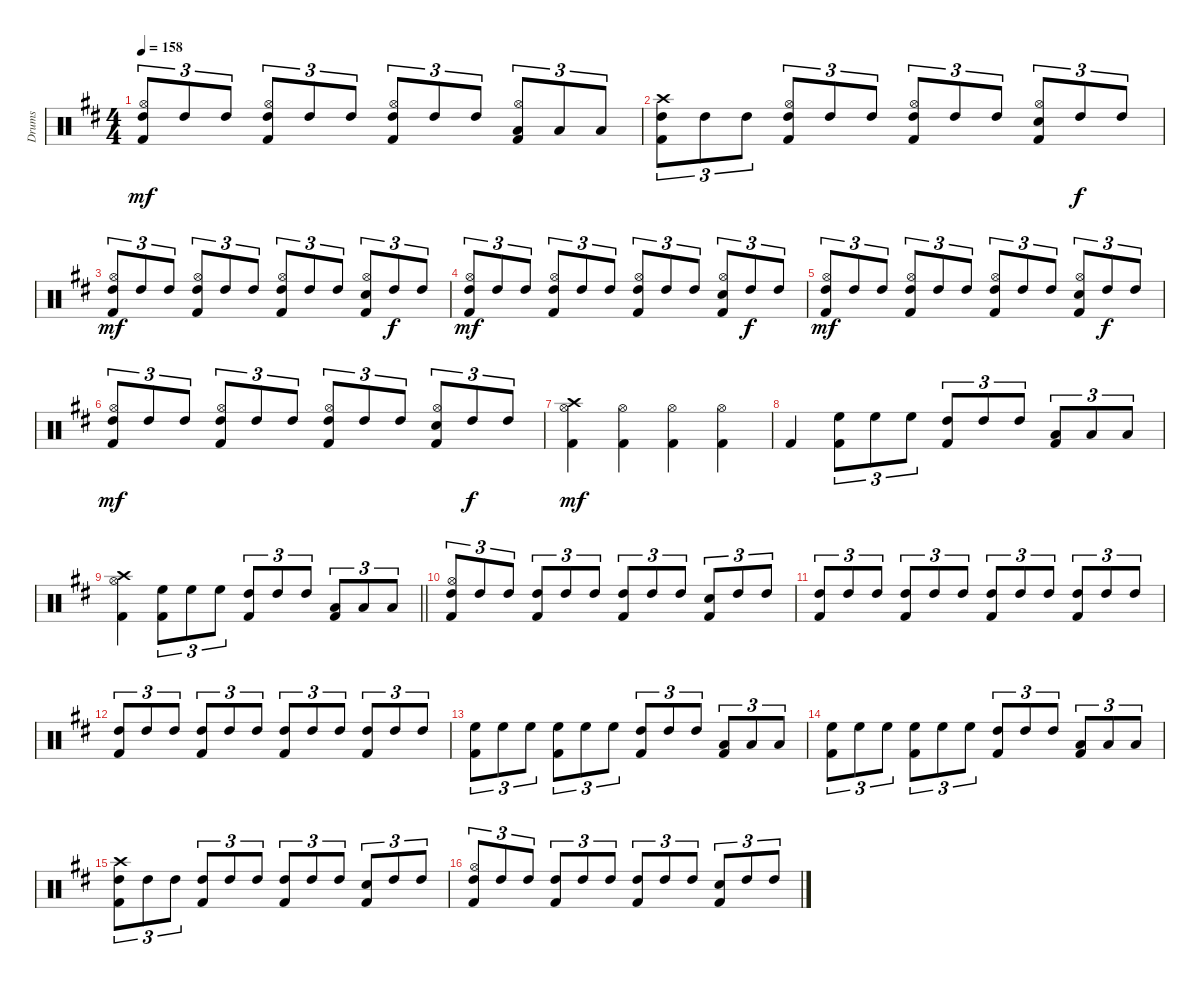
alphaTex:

\track ("Drums" "Drums") {instrument percussion}
\staff {score}
\articulation defaults
\ts (4 4)
\tempo 158
\clef neutral
\ks d
("Kick (hit) 2" "Hi-Hat (open)" "High Tom (hit)").8{tu (3 2) dy mf} "High Tom (hit)".8{tu (3 2)} "High Tom (hit)".8{tu (3 2)} ("Kick (hit) 2" "Hi-Hat (open)" "High Tom (hit)").8{tu (3 2)} "High Tom (hit)".8{tu (3 2)} "High Tom (hit)".8{tu (3 2)} ("Kick (hit) 2" "Hi-Hat (open)" "High Tom (hit)").8{tu (3 2)} "High Tom (hit)".8{tu (3 2)} "High Tom (hit)".8{tu (3 2)} ("Kick (hit) 2" "Hi-Hat (open)" "Low Tom (hit)").8{tu (3 2)} "Low Tom (hit)".8{tu (3 2)} "Low Tom (hit)".8{tu (3 2)} |
("Kick (hit) 2" "High Tom (hit)" "Crash high (hit)").8{tu (3 2)} "High Tom (hit)".8{tu (3 2)} "High Tom (hit)".8{tu (3 2)} ("Kick (hit) 2" "Hi-Hat (open)" "High Tom (hit)").8{tu (3 2)} "High Tom (hit)".8{tu (3 2)} "High Tom (hit)".8{tu (3 2)} ("Kick (hit) 2" "Hi-Hat (open)" "High Tom (hit)").8{tu (3 2)} "High Tom (hit)".8{tu (3 2)} "High Tom (hit)".8{tu (3 2)} ("Kick (hit) 2" "Snare (hit) 2" "Hi-Hat (open)").8{tu (3 2)} "High Tom (hit)".8{tu (3 2) dy f} "High Tom (hit)".8{tu (3 2)} |
("Kick (hit) 2" "Hi-Hat (open)" "High Tom (hit)").8{tu (3 2) dy mf} "High Tom (hit)".8{tu (3 2)} "High Tom (hit)".8{tu (3 2)} ("Kick (hit) 2" "Hi-Hat (open)" "High Tom (hit)").8{tu (3 2)} "High Tom (hit)".8{tu (3 2)} "High Tom (hit)".8{tu (3 2)} ("Kick (hit) 2" "Hi-Hat (open)" "High Tom (hit)").8{tu (3 2)} "High Tom (hit)".8{tu (3 2)} "High Tom (hit)".8{tu (3 2)} ("Kick (hit) 2" "Snare (hit) 2" "Hi-Hat (open)").8{tu (3 2)} "High Tom (hit)".8{tu (3 2) dy f} "High Tom (hit)".8{tu (3 2)} |
("Kick (hit) 2" "Hi-Hat (open)" "High Tom (hit)").8{tu (3 2) dy mf} "High Tom (hit)".8{tu (3 2)} "High Tom (hit)".8{tu (3 2)} ("Kick (hit) 2" "Hi-Hat (open)" "High Tom (hit)").8{tu (3 2)} "High Tom (hit)".8{tu (3 2)} "High Tom (hit)".8{tu (3 2)} ("Kick (hit) 2" "Hi-Hat (open)" "High Tom (hit)").8{tu (3 2)} "High Tom (hit)".8{tu (3 2)} "High Tom (hit)".8{tu (3 2)} ("Kick (hit) 2" "Snare (hit) 2" "Hi-Hat (open)").8{tu (3 2)} "High Tom (hit)".8{tu (3 2) dy f} "High Tom (hit)".8{tu (3 2)} |
("Kick (hit) 2" "Hi-Hat (open)" "High Tom (hit)").8{tu (3 2) dy mf} "High Tom (hit)".8{tu (3 2)} "High Tom (hit)".8{tu (3 2)} ("Kick (hit) 2" "Hi-Hat (open)" "High Tom (hit)").8{tu (3 2)} "High Tom (hit)".8{tu (3 2)} "High Tom (hit)".8{tu (3 2)} ("Kick (hit) 2" "Hi-Hat (open)" "High Tom (hit)").8{tu (3 2)} "High Tom (hit)".8{tu (3 2)} "High Tom (hit)".8{tu (3 2)} ("Kick (hit) 2" "Snare (hit) 2" "Hi-Hat (open)").8{tu (3 2)} "High Tom (hit)".8{tu (3 2) dy f} "High Tom (hit)".8{tu (3 2)} |
("Kick (hit) 2" "Hi-Hat (open)" "High Tom (hit)").8{tu (3 2) dy mf} "High Tom (hit)".8{tu (3 2)} "High Tom (hit)".8{tu (3 2)} ("Kick (hit) 2" "Hi-Hat (open)" "High Tom (hit)").8{tu (3 2)} "High Tom (hit)".8{tu (3 2)} "High Tom (hit)".8{tu (3 2)} ("Kick (hit) 2" "Hi-Hat (open)" "High Tom (hit)").8{tu (3 2)} "High Tom (hit)".8{tu (3 2)} "High Tom (hit)".8{tu (3 2)} ("Kick (hit) 2" "Snare (hit) 2" "Hi-Hat (open)").8{tu (3 2)} "High Tom (hit)".8{tu (3 2) dy f} "High Tom (hit)".8{tu (3 2)} |
("Kick (hit) 2" "Hi-Hat (open)" "Crash high (hit)").4{dy mf} ("Kick (hit) 2" "Hi-Hat (open)").4 ("Kick (hit) 2" "Hi-Hat (open)").4 ("Kick (hit) 2" "Hi-Hat (open)").4 |
"Kick (hit) 2".4 ("Kick (hit) 2" "High Floor Tom (hit)").8{tu (3 2)} "High Floor Tom (hit)".8{tu (3 2)} "High Floor Tom (hit)".8{tu (3 2)} ("Kick (hit) 2" "High Tom (hit)").8{tu (3 2)} "High Tom (hit)".8{tu (3 2)} "High Tom (hit)".8{tu (3 2)} ("Kick (hit) 2" "Low Tom (hit)").8{tu (3 2)} "Low Tom (hit)".8{tu (3 2)} "Low Tom (hit)".8{tu (3 2)} |
\barLineRight lightlight
("Kick (hit) 2" "Hi-Hat (open)" "Crash high (hit)").4 ("Kick (hit) 2" "High Floor Tom (hit)").8{tu (3 2)} "High Floor Tom (hit)".8{tu (3 2)} "High Floor Tom (hit)".8{tu (3 2)} ("Kick (hit) 2" "High Tom (hit)").8{tu (3 2)} "High Tom (hit)".8{tu (3 2)} "High Tom (hit)".8{tu (3 2)} ("Kick (hit) 2" "Low Tom (hit)").8{tu (3 2)} "Low Tom (hit)".8{tu (3 2)} "Low Tom (hit)".8{tu (3 2)} |
("Kick (hit) 2" "Hi-Hat (open)" "High Tom (hit)").8{tu (3 2)} "High Tom (hit)".8{tu (3 2)} "High Tom (hit)".8{tu (3 2)} ("Kick (hit) 2" "High Tom (hit)").8{tu (3 2)} "High Tom (hit)".8{tu (3 2)} "High Tom (hit)".8{tu (3 2)} ("Kick (hit) 2" "High Tom (hit)").8{tu (3 2)} "High Tom (hit)".8{tu (3 2)} "High Tom (hit)".8{tu (3 2)} ("Kick (hit) 2" "Snare (hit) 2").8{tu (3 2)} "High Tom (hit)".8{tu (3 2)} "High Tom (hit)".8{tu (3 2)} |
("Kick (hit) 2" "High Tom (hit)").8{tu (3 2)} "High Tom (hit)".8{tu (3 2)} "High Tom (hit)".8{tu (3 2)} ("Kick (hit) 2" "High Tom (hit)").8{tu (3 2)} "High Tom (hit)".8{tu (3 2)} "High Tom (hit)".8{tu (3 2)} ("Kick (hit) 2" "High Tom (hit)").8{tu (3 2)} "High Tom (hit)".8{tu (3 2)} "High Tom (hit)".8{tu (3 2)} ("Kick (hit) 2" "High Tom (hit)").8{tu (3 2)} "High Tom (hit)".8{tu (3 2)} "High Tom (hit)".8{tu (3 2)} |
("Kick (hit) 2" "High Tom (hit)").8{tu (3 2)} "High Tom (hit)".8{tu (3 2)} "High Tom (hit)".8{tu (3 2)} ("Kick (hit) 2" "High Tom (hit)").8{tu (3 2)} "High Tom (hit)".8{tu (3 2)} "High Tom (hit)".8{tu (3 2)} ("Kick (hit) 2" "High Tom (hit)").8{tu (3 2)} "High Tom (hit)".8{tu (3 2)} "High Tom (hit)".8{tu (3 2)} ("Kick (hit) 2" "High Tom (hit)").8{tu (3 2)} "High Tom (hit)".8{tu (3 2)} "High Tom (hit)".8{tu (3 2)} |
("Kick (hit) 2" "High Floor Tom (hit)").8{tu (3 2)} "High Floor Tom (hit)".8{tu (3 2)} "High Floor Tom (hit)".8{tu (3 2)} ("Kick (hit) 2" "High Floor Tom (hit)").8{tu (3 2)} "High Floor Tom (hit)".8{tu (3 2)} "High Floor Tom (hit)".8{tu (3 2)} ("Kick (hit) 2" "High Tom (hit)").8{tu (3 2)} "High Tom (hit)".8{tu (3 2)} "High Tom (hit)".8{tu (3 2)} ("Kick (hit) 2" "Low Tom (hit)").8{tu (3 2)} "Low Tom (hit)".8{tu (3 2)} "Low Tom (hit)".8{tu (3 2)} |
("Kick (hit) 2" "High Floor Tom (hit)").8{tu (3 2)} "High Floor Tom (hit)".8{tu (3 2)} "High Floor Tom (hit)".8{tu (3 2)} ("Kick (hit) 2" "High Floor Tom (hit)").8{tu (3 2)} "High Floor Tom (hit)".8{tu (3 2)} "High Floor Tom (hit)".8{tu (3 2)} ("Kick (hit) 2" "High Tom (hit)").8{tu (3 2)} "High Tom (hit)".8{tu (3 2)} "High Tom (hit)".8{tu (3 2)} ("Kick (hit) 2" "Low Tom (hit)").8{tu (3 2)} "Low Tom (hit)".8{tu (3 2)} "Low Tom (hit)".8{tu (3 2)} |
("Kick (hit) 2" "High Tom (hit)" "Crash high (hit)").8{tu (3 2)} "High Tom (hit)".8{tu (3 2)} "High Tom (hit)".8{tu (3 2)} ("Kick (hit) 2" "High Tom (hit)").8{tu (3 2)} "High Tom (hit)".8{tu (3 2)} "High Tom (hit)".8{tu (3 2)} ("Kick (hit) 2" "High Tom (hit)").8{tu (3 2)} "High Tom (hit)".8{tu (3 2)} "High Tom (hit)".8{tu (3 2)} ("Kick (hit) 2" "Snare (hit) 2").8{tu (3 2)} "High Tom (hit)".8{tu (3 2)} "High Tom (hit)".8{tu (3 2)} |
("Kick (hit) 2" "Hi-Hat (open)" "High Tom (hit)").8{tu (3 2)} "High Tom (hit)".8{tu (3 2)} "High Tom (hit)".8{tu (3 2)} ("Kick (hit) 2" "High Tom (hit)").8{tu (3 2)} "High Tom (hit)".8{tu (3 2)} "High Tom (hit)".8{tu (3 2)} ("Kick (hit) 2" "High Tom (hit)").8{tu (3 2)} "High Tom (hit)".8{tu (3 2)} "High Tom (hit)".8{tu (3 2)} ("Kick (hit) 2" "Snare (hit) 2").8{tu (3 2)} "High Tom (hit)".8{tu (3 2)} "High Tom (hit)".8{tu (3 2)}
